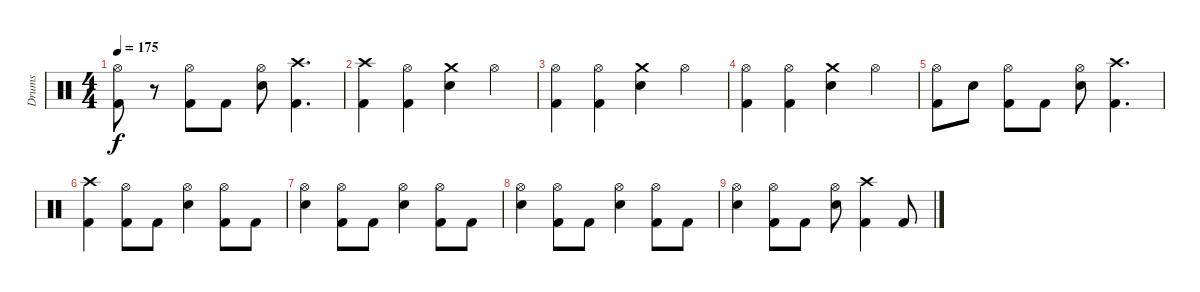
\track ("Drums" "Drums") {instrument percussion}
\staff {score}
\articulation defaults
\ts (4 4)
\tempo 175
\clef neutral
\ks c
("Hi-Hat (open)" "Kick (hit) 2").8{dy f} r.8 ("Hi-Hat (open)" "Kick (hit) 2").8 "Kick (hit) 2".8 ("Hi-Hat (open)" "Snare (hit) 2").8 ("Crash high (hit)" "Kick (hit) 2").4{d} |
("Crash high (hit)" "Kick (hit) 2").4 ("Hi-Hat (open)" "Kick (hit) 2").4 ("Crash medium (hit)" "Snare (hit) 2").4 "Hi-Hat (open)".4 |
("Hi-Hat (open)" "Kick (hit) 2").4 ("Hi-Hat (open)" "Kick (hit) 2").4 ("Crash medium (hit)" "Snare (hit) 2").4 "Hi-Hat (open)".4 |
("Hi-Hat (open)" "Kick (hit) 2").4 ("Hi-Hat (open)" "Kick (hit) 2").4 ("Crash medium (hit)" "Snare (hit) 2").4 "Hi-Hat (open)".4 |
("Hi-Hat (open)" "Kick (hit) 2").8 "Snare (hit) 2".8 ("Hi-Hat (open)" "Kick (hit) 2").8 "Kick (hit) 2".8 ("Hi-Hat (open)" "Snare (hit) 2").8 ("Crash high (hit)" "Kick (hit) 2").4{d} |
("Crash high (hit)" "Kick (hit) 2").4 ("Hi-Hat (open)" "Kick (hit) 2").8 "Kick (hit) 2".8 ("Hi-Hat (open)" "Snare (hit) 2").4 ("Hi-Hat (open)" "Kick (hit) 2").8 "Kick (hit) 2".8 |
("Hi-Hat (open)" "Snare (hit) 2").4 ("Hi-Hat (open)" "Kick (hit) 2").8 "Kick (hit) 2".8 ("Hi-Hat (open)" "Snare (hit) 2").4 ("Hi-Hat (open)" "Kick (hit) 2").8 "Kick (hit) 2".8 |
("Hi-Hat (open)" "Snare (hit) 2").4 ("Hi-Hat (open)" "Kick (hit) 2").8 "Kick (hit) 2".8 ("Hi-Hat (open)" "Snare (hit) 2").4 ("Hi-Hat (open)" "Kick (hit) 2").8 "Kick (hit) 2".8 |
("Hi-Hat (open)" "Snare (hit) 2").4 ("Hi-Hat (open)" "Kick (hit) 2").8 "Kick (hit) 2".8 ("Hi-Hat (open)" "Snare (hit) 2").8 ("Crash high (hit)" "Kick (hit) 2").4 "Kick (hit) 2".8
